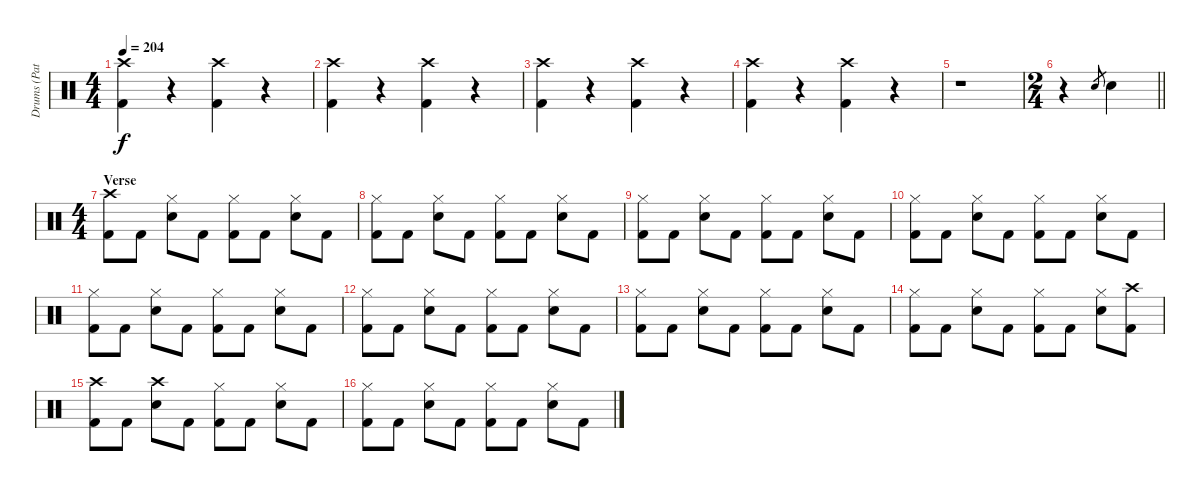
\track ("Drums (Patrick Johansson)" "Drums (Pat") {instrument percussion}
\staff {score}
\articulation defaults
\ts (4 4)
\tempo 204
\clef neutral
\ks c
("Crash high (hit)" "Kick (hit) 2").4{dy f} r.4 ("Crash high (hit)" "Kick (hit) 2").4 r.4 |
("Crash high (hit)" "Kick (hit) 2").4 r.4 ("Crash high (hit)" "Kick (hit) 2").4 r.4 |
("Crash high (hit)" "Kick (hit) 2").4 r.4 ("Crash high (hit)" "Kick (hit) 2").4 r.4 |
("Crash high (hit)" "Kick (hit) 2").4 r.4 ("Crash high (hit)" "Kick (hit) 2").4 r.4 |
r.1 |
\ts (2 4)
\barLineRight lightlight
r.4 "Electric Snare (hit)".8{gr} "Electric Snare (hit)".4 |
\ts (4 4)
\section ("" "Verse")
("Crash high (hit)" "Kick (hit) 2").8 "Kick (hit) 2".8 ("Electric Snare (hit)" "Hi-Hat (closed)").8 "Kick (hit) 2".8 ("Hi-Hat (closed)" "Kick (hit) 2").8 "Kick (hit) 2".8 ("Electric Snare (hit)" "Hi-Hat (closed)").8 "Kick (hit) 2".8 |
("Hi-Hat (closed)" "Kick (hit) 2").8 "Kick (hit) 2".8 ("Electric Snare (hit)" "Hi-Hat (closed)").8 "Kick (hit) 2".8 ("Hi-Hat (closed)" "Kick (hit) 2").8 "Kick (hit) 2".8 ("Electric Snare (hit)" "Hi-Hat (closed)").8 "Kick (hit) 2".8 |
("Hi-Hat (closed)" "Kick (hit) 2").8 "Kick (hit) 2".8 ("Electric Snare (hit)" "Hi-Hat (closed)").8 "Kick (hit) 2".8 ("Hi-Hat (closed)" "Kick (hit) 2").8 "Kick (hit) 2".8 ("Electric Snare (hit)" "Hi-Hat (closed)").8 "Kick (hit) 2".8 |
("Hi-Hat (closed)" "Kick (hit) 2").8 "Kick (hit) 2".8 ("Electric Snare (hit)" "Hi-Hat (closed)").8 "Kick (hit) 2".8 ("Hi-Hat (closed)" "Kick (hit) 2").8 "Kick (hit) 2".8 ("Electric Snare (hit)" "Hi-Hat (closed)").8 "Kick (hit) 2".8 |
("Hi-Hat (closed)" "Kick (hit) 2").8 "Kick (hit) 2".8 ("Electric Snare (hit)" "Hi-Hat (closed)").8 "Kick (hit) 2".8 ("Hi-Hat (closed)" "Kick (hit) 2").8 "Kick (hit) 2".8 ("Electric Snare (hit)" "Hi-Hat (closed)").8 "Kick (hit) 2".8 |
("Hi-Hat (closed)" "Kick (hit) 2").8 "Kick (hit) 2".8 ("Electric Snare (hit)" "Hi-Hat (closed)").8 "Kick (hit) 2".8 ("Hi-Hat (closed)" "Kick (hit) 2").8 "Kick (hit) 2".8 ("Electric Snare (hit)" "Hi-Hat (closed)").8 "Kick (hit) 2".8 |
("Hi-Hat (closed)" "Kick (hit) 2").8 "Kick (hit) 2".8 ("Electric Snare (hit)" "Hi-Hat (closed)").8 "Kick (hit) 2".8 ("Hi-Hat (closed)" "Kick (hit) 2").8 "Kick (hit) 2".8 ("Electric Snare (hit)" "Hi-Hat (closed)").8 "Kick (hit) 2".8 |
("Hi-Hat (closed)" "Kick (hit) 2").8 "Kick (hit) 2".8 ("Electric Snare (hit)" "Hi-Hat (closed)").8 "Kick (hit) 2".8 ("Hi-Hat (closed)" "Kick (hit) 2").8 "Kick (hit) 2".8 ("Electric Snare (hit)" "Hi-Hat (closed)").8 ("Crash high (hit)" "Kick (hit) 2").8 |
("Crash high (hit)" "Kick (hit) 2").8 "Kick (hit) 2".8 ("Crash high (hit)" "Electric Snare (hit)").8 "Kick (hit) 2".8 ("Hi-Hat (closed)" "Kick (hit) 2").8 "Kick (hit) 2".8 ("Electric Snare (hit)" "Hi-Hat (closed)").8 "Kick (hit) 2".8 |
("Hi-Hat (closed)" "Kick (hit) 2").8 "Kick (hit) 2".8 ("Electric Snare (hit)" "Hi-Hat (closed)").8 "Kick (hit) 2".8 ("Hi-Hat (closed)" "Kick (hit) 2").8 "Kick (hit) 2".8 ("Electric Snare (hit)" "Hi-Hat (closed)").8 "Kick (hit) 2".8
